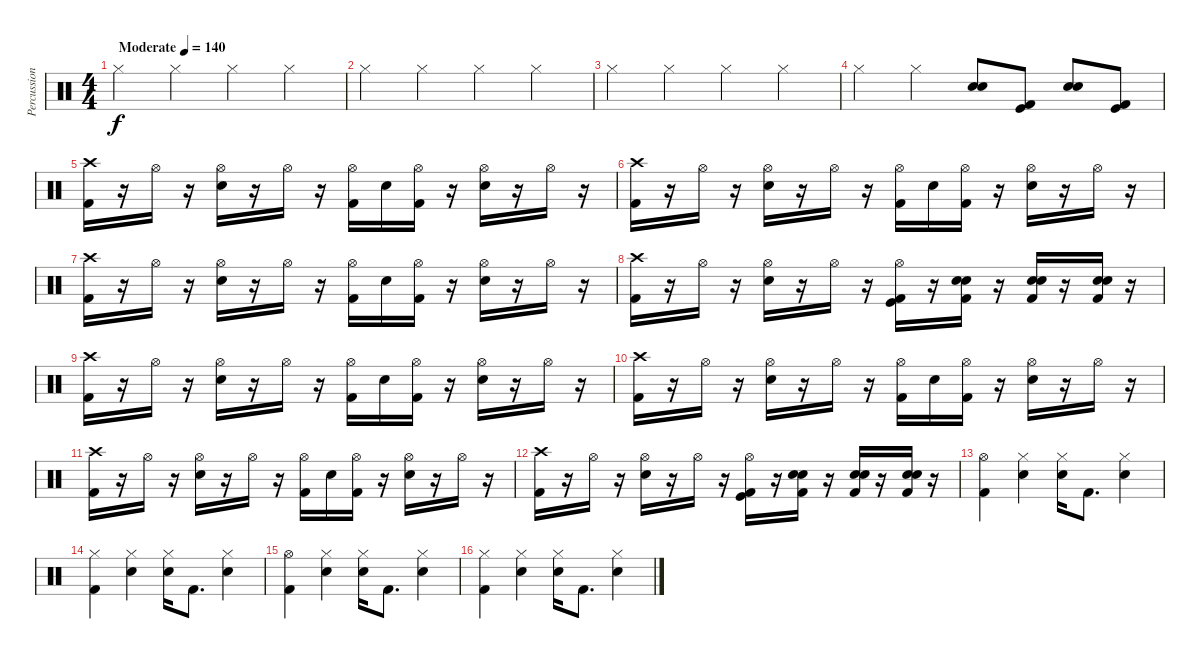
\track ("Percussions" "Percussion") {instrument percussion}
\staff {score}
\articulation defaults
\ts (4 4)
\tempo (140 "Moderate")
\clef neutral
\ks c "Hi-Hat (closed)".4{dy f} "Hi-Hat (closed)".4 "Hi-Hat (closed)".4 "Hi-Hat (closed)".4
|
"Hi-Hat (closed)".4 "Hi-Hat (closed)".4 "Hi-Hat (closed)".4 "Hi-Hat (closed)".4 |
"Hi-Hat (closed)".4 "Hi-Hat (closed)".4 "Hi-Hat (closed)".4 "Hi-Hat (closed)".4 |
"Hi-Hat (closed)".4 "Hi-Hat (closed)".4 ("Snare (hit) 2" "Electric Snare (hit)").8 ("Kick (hit)" "Kick (hit) 2").8 ("Snare (hit) 2" "Electric Snare (hit)").8 ("Kick (hit)" "Kick (hit) 2").8 |
("Crash high (hit)" "Kick (hit) 2").16 r.16 "Hi-Hat (open)".16 r.16 ("Hi-Hat (open)" "Electric Snare (hit)").16 r.16 "Hi-Hat (open)".16 r.16 ("Hi-Hat (open)" "Kick (hit) 2").16 "Electric Snare (hit)".16 ("Hi-Hat (open)" "Kick (hit) 2").16 r.16 ("Hi-Hat (open)" "Electric Snare (hit)").16 r.16 "Hi-Hat (open)".16 r.16 |
("Crash high (hit)" "Kick (hit) 2").16 r.16 "Hi-Hat (open)".16 r.16 ("Hi-Hat (open)" "Electric Snare (hit)").16 r.16 "Hi-Hat (open)".16 r.16 ("Hi-Hat (open)" "Kick (hit) 2").16 "Electric Snare (hit)".16 ("Hi-Hat (open)" "Kick (hit) 2").16 r.16 ("Hi-Hat (open)" "Electric Snare (hit)").16 r.16 "Hi-Hat (open)".16 r.16 |
("Crash high (hit)" "Kick (hit) 2").16 r.16 "Hi-Hat (open)".16 r.16 ("Hi-Hat (open)" "Electric Snare (hit)").16 r.16 "Hi-Hat (open)".16 r.16 ("Hi-Hat (open)" "Kick (hit) 2").16 "Electric Snare (hit)".16 ("Hi-Hat (open)" "Kick (hit) 2").16 r.16 ("Hi-Hat (open)" "Electric Snare (hit)").16 r.16 "Hi-Hat (open)".16 r.16 |
("Crash high (hit)" "Kick (hit) 2").16 r.16 "Hi-Hat (open)".16 r.16 ("Hi-Hat (open)" "Electric Snare (hit)").16 r.16 "Hi-Hat (open)".16 r.16 ("Hi-Hat (open)" "Kick (hit)" "Kick (hit) 2").16 r.16 ("Electric Snare (hit)" "Kick (hit) 2" "Snare (hit) 2").16 r.16 ("Electric Snare (hit)" "Kick (hit) 2" "Snare (hit) 2").16 r.16 ("Electric Snare (hit)" "Kick (hit) 2" "Snare (hit) 2").16 r.16 |
("Crash high (hit)" "Kick (hit) 2").16 r.16 "Hi-Hat (open)".16 r.16 ("Hi-Hat (open)" "Electric Snare (hit)").16 r.16 "Hi-Hat (open)".16 r.16 ("Hi-Hat (open)" "Kick (hit) 2").16 "Electric Snare (hit)".16 ("Hi-Hat (open)" "Kick (hit) 2").16 r.16 ("Hi-Hat (open)" "Electric Snare (hit)").16 r.16 "Hi-Hat (open)".16 r.16 |
("Crash high (hit)" "Kick (hit) 2").16 r.16 "Hi-Hat (open)".16 r.16 ("Hi-Hat (open)" "Electric Snare (hit)").16 r.16 "Hi-Hat (open)".16 r.16 ("Hi-Hat (open)" "Kick (hit) 2").16 "Electric Snare (hit)".16 ("Hi-Hat (open)" "Kick (hit) 2").16 r.16 ("Hi-Hat (open)" "Electric Snare (hit)").16 r.16 "Hi-Hat (open)".16 r.16 |
("Crash high (hit)" "Kick (hit) 2").16 r.16 "Hi-Hat (open)".16 r.16 ("Hi-Hat (open)" "Electric Snare (hit)").16 r.16 "Hi-Hat (open)".16 r.16 ("Hi-Hat (open)" "Kick (hit) 2").16 "Electric Snare (hit)".16 ("Hi-Hat (open)" "Kick (hit) 2").16 r.16 ("Hi-Hat (open)" "Electric Snare (hit)").16 r.16 "Hi-Hat (open)".16 r.16 |
("Crash high (hit)" "Kick (hit) 2").16 r.16 "Hi-Hat (open)".16 r.16 ("Hi-Hat (open)" "Electric Snare (hit)").16 r.16 "Hi-Hat (open)".16 r.16 ("Hi-Hat (open)" "Kick (hit)" "Kick (hit) 2").16 r.16 ("Electric Snare (hit)" "Kick (hit) 2" "Snare (hit) 2").16 r.16 ("Electric Snare (hit)" "Kick (hit) 2" "Snare (hit) 2").16 r.16 ("Electric Snare (hit)" "Kick (hit) 2" "Snare (hit) 2").16 r.16 |
("Hi-Hat (open)" "Kick (hit) 2").4 ("Hi-Hat (closed)" "Electric Snare (hit)").4 ("Hi-Hat (closed)" "Electric Snare (hit)").16 "Kick (hit) 2".8{d} ("Hi-Hat (closed)" "Electric Snare (hit)").4 |
("Hi-Hat (closed)" "Kick (hit) 2").4 ("Hi-Hat (closed)" "Electric Snare (hit)").4 ("Hi-Hat (closed)" "Electric Snare (hit)").16 "Kick (hit) 2".8{d} ("Hi-Hat (closed)" "Electric Snare (hit)").4 |
("Hi-Hat (open)" "Kick (hit) 2").4 ("Hi-Hat (closed)" "Electric Snare (hit)").4 ("Hi-Hat (closed)" "Electric Snare (hit)").16 "Kick (hit) 2".8{d} ("Hi-Hat (closed)" "Electric Snare (hit)").4 |
("Hi-Hat (closed)" "Kick (hit) 2").4 ("Hi-Hat (closed)" "Electric Snare (hit)").4 ("Hi-Hat (closed)" "Electric Snare (hit)").16 "Kick (hit) 2".8{d} ("Hi-Hat (closed)" "Electric Snare (hit)").4
